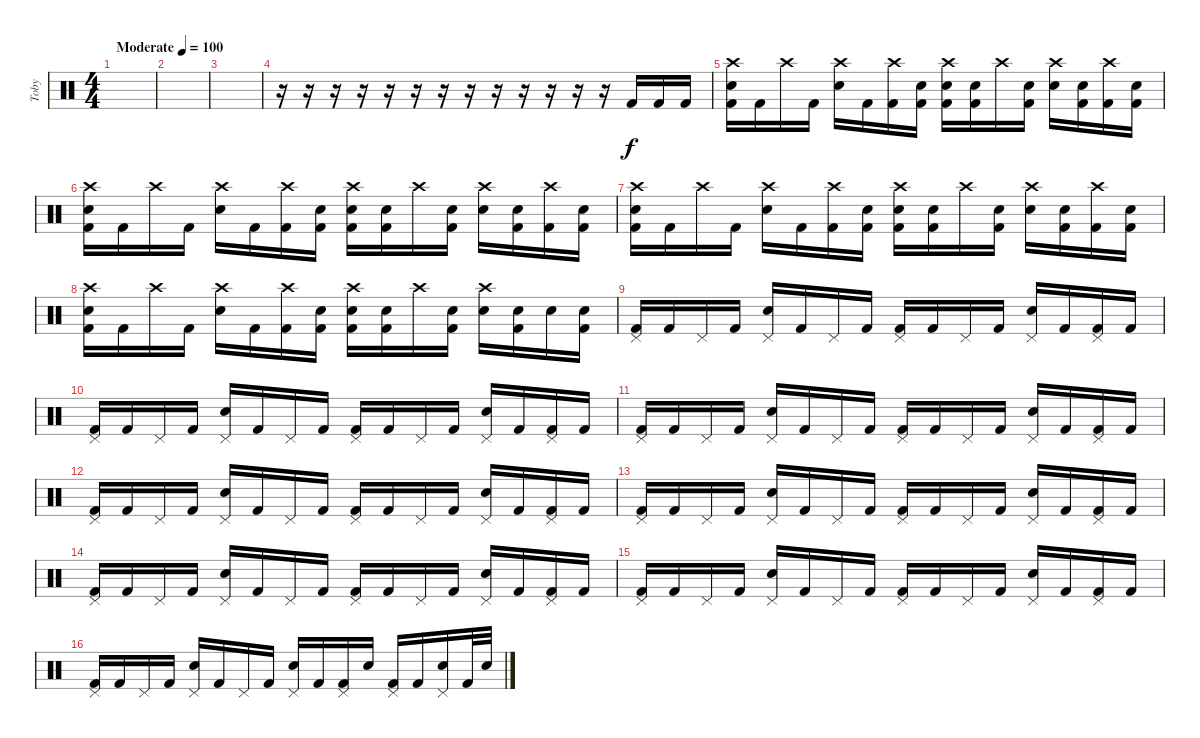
\track ("Toby" "Toby") {instrument percussion}
\staff {score}
\articulation defaults
\ts (4 4)
\tempo (100 "Moderate")
\clef neutral
\ks c
|
|
|
r.16 r.16 r.16 r.16 r.16 r.16 r.16 r.16 r.16 r.16 r.16 r.16 r.16 "Kick (hit) 2".16 "Kick (hit) 2".16 "Kick (hit) 2".16 |
("Crash high (hit)" "Electric Snare (hit)" "Kick (hit) 2").16 "Kick (hit) 2".16 "Crash high (hit)".16 "Kick (hit) 2".16 ("Crash high (hit)" "Electric Snare (hit)").16 "Kick (hit) 2".16 ("Crash high (hit)" "Kick (hit) 2").16 ("Snare (hit)" "Kick (hit) 2").16 ("Crash high (hit)" "Electric Snare (hit)" "Kick (hit) 2").16 ("Snare (hit)" "Kick (hit) 2").16 "Crash high (hit)".16 ("Snare (hit)" "Kick (hit) 2").16 ("Crash high (hit)" "Electric Snare (hit)").16 ("Snare (hit)" "Kick (hit) 2").16 ("Crash high (hit)" "Kick (hit) 2").16 ("Snare (hit)" "Kick (hit) 2").16 |
("Crash high (hit)" "Electric Snare (hit)" "Kick (hit) 2").16 "Kick (hit) 2".16 "Crash high (hit)".16 "Kick (hit) 2".16 ("Crash high (hit)" "Electric Snare (hit)").16 "Kick (hit) 2".16 ("Crash high (hit)" "Kick (hit) 2").16 ("Snare (hit)" "Kick (hit) 2").16 ("Crash high (hit)" "Electric Snare (hit)" "Kick (hit) 2").16 ("Snare (hit)" "Kick (hit) 2").16 "Crash high (hit)".16 ("Snare (hit)" "Kick (hit) 2").16 ("Crash high (hit)" "Electric Snare (hit)").16 ("Snare (hit)" "Kick (hit) 2").16 ("Crash high (hit)" "Kick (hit) 2").16 ("Snare (hit)" "Kick (hit) 2").16 |
("Crash high (hit)" "Electric Snare (hit)" "Kick (hit) 2").16 "Kick (hit) 2".16 "Crash high (hit)".16 "Kick (hit) 2".16 ("Crash high (hit)" "Electric Snare (hit)").16 "Kick (hit) 2".16 ("Crash high (hit)" "Kick (hit) 2").16 ("Snare (hit)" "Kick (hit) 2").16 ("Crash high (hit)" "Electric Snare (hit)" "Kick (hit) 2").16 ("Snare (hit)" "Kick (hit) 2").16 "Crash high (hit)".16 ("Snare (hit)" "Kick (hit) 2").16 ("Crash high (hit)" "Electric Snare (hit)").16 ("Snare (hit)" "Kick (hit) 2").16 ("Crash high (hit)" "Kick (hit) 2").16 ("Snare (hit)" "Kick (hit) 2").16 |
("Crash high (hit)" "Electric Snare (hit)" "Kick (hit) 2").16 "Kick (hit) 2".16 "Crash high (hit)".16 "Kick (hit) 2".16 ("Crash high (hit)" "Electric Snare (hit)").16 "Kick (hit) 2".16 ("Crash high (hit)" "Kick (hit) 2").16 ("Snare (hit)" "Kick (hit) 2").16 ("Crash high (hit)" "Electric Snare (hit)" "Kick (hit) 2").16 ("Snare (hit)" "Kick (hit) 2").16 "Crash high (hit)".16 ("Snare (hit)" "Kick (hit) 2").16 ("Crash high (hit)" "Electric Snare (hit)").16 ("Snare (hit)" "Kick (hit) 2").16 "Electric Snare (hit)".16 ("Snare (hit)" "Kick (hit) 2").16 |
("Pedal Hi-Hat (hit)" "Kick (hit) 2").16 "Kick (hit) 2".16 "Pedal Hi-Hat (hit)".16 "Kick (hit) 2".16 ("Pedal Hi-Hat (hit)" "Electric Snare (hit)").16 "Kick (hit) 2".16 "Pedal Hi-Hat (hit)".16 "Kick (hit) 2".16 ("Pedal Hi-Hat (hit)" "Kick (hit) 2").16 "Kick (hit) 2".16 "Pedal Hi-Hat (hit)".16 "Kick (hit) 2".16 ("Pedal Hi-Hat (hit)" "Electric Snare (hit)").16 "Kick (hit) 2".16 ("Pedal Hi-Hat (hit)" "Kick (hit) 2").16 "Kick (hit) 2".16 |
("Pedal Hi-Hat (hit)" "Kick (hit) 2").16 "Kick (hit) 2".16 "Pedal Hi-Hat (hit)".16 "Kick (hit) 2".16 ("Pedal Hi-Hat (hit)" "Electric Snare (hit)").16 "Kick (hit) 2".16 "Pedal Hi-Hat (hit)".16 "Kick (hit) 2".16 ("Pedal Hi-Hat (hit)" "Kick (hit) 2").16 "Kick (hit) 2".16 "Pedal Hi-Hat (hit)".16 "Kick (hit) 2".16 ("Pedal Hi-Hat (hit)" "Electric Snare (hit)").16 "Kick (hit) 2".16 ("Pedal Hi-Hat (hit)" "Kick (hit) 2").16 "Kick (hit) 2".16 |
("Pedal Hi-Hat (hit)" "Kick (hit) 2").16 "Kick (hit) 2".16 "Pedal Hi-Hat (hit)".16 "Kick (hit) 2".16 ("Pedal Hi-Hat (hit)" "Electric Snare (hit)").16 "Kick (hit) 2".16 "Pedal Hi-Hat (hit)".16 "Kick (hit) 2".16 ("Pedal Hi-Hat (hit)" "Kick (hit) 2").16 "Kick (hit) 2".16 "Pedal Hi-Hat (hit)".16 "Kick (hit) 2".16 ("Pedal Hi-Hat (hit)" "Electric Snare (hit)").16 "Kick (hit) 2".16 ("Pedal Hi-Hat (hit)" "Kick (hit) 2").16 "Kick (hit) 2".16 |
("Pedal Hi-Hat (hit)" "Kick (hit) 2").16 "Kick (hit) 2".16 "Pedal Hi-Hat (hit)".16 "Kick (hit) 2".16 ("Pedal Hi-Hat (hit)" "Electric Snare (hit)").16 "Kick (hit) 2".16 "Pedal Hi-Hat (hit)".16 "Kick (hit) 2".16 ("Pedal Hi-Hat (hit)" "Kick (hit) 2").16 "Kick (hit) 2".16 "Pedal Hi-Hat (hit)".16 "Kick (hit) 2".16 ("Pedal Hi-Hat (hit)" "Electric Snare (hit)").16 "Kick (hit) 2".16 ("Pedal Hi-Hat (hit)" "Kick (hit) 2").16 "Kick (hit) 2".16 |
("Pedal Hi-Hat (hit)" "Kick (hit) 2").16 "Kick (hit) 2".16 "Pedal Hi-Hat (hit)".16 "Kick (hit) 2".16 ("Pedal Hi-Hat (hit)" "Electric Snare (hit)").16 "Kick (hit) 2".16 "Pedal Hi-Hat (hit)".16 "Kick (hit) 2".16 ("Pedal Hi-Hat (hit)" "Kick (hit) 2").16 "Kick (hit) 2".16 "Pedal Hi-Hat (hit)".16 "Kick (hit) 2".16 ("Pedal Hi-Hat (hit)" "Electric Snare (hit)").16 "Kick (hit) 2".16 ("Pedal Hi-Hat (hit)" "Kick (hit) 2").16 "Kick (hit) 2".16 |
("Pedal Hi-Hat (hit)" "Kick (hit) 2").16 "Kick (hit) 2".16 "Pedal Hi-Hat (hit)".16 "Kick (hit) 2".16 ("Pedal Hi-Hat (hit)" "Electric Snare (hit)").16 "Kick (hit) 2".16 "Pedal Hi-Hat (hit)".16 "Kick (hit) 2".16 ("Pedal Hi-Hat (hit)" "Kick (hit) 2").16 "Kick (hit) 2".16 "Pedal Hi-Hat (hit)".16 "Kick (hit) 2".16 ("Pedal Hi-Hat (hit)" "Electric Snare (hit)").16 "Kick (hit) 2".16 ("Pedal Hi-Hat (hit)" "Kick (hit) 2").16 "Kick (hit) 2".16 |
("Pedal Hi-Hat (hit)" "Kick (hit) 2").16 "Kick (hit) 2".16 "Pedal Hi-Hat (hit)".16 "Kick (hit) 2".16 ("Pedal Hi-Hat (hit)" "Electric Snare (hit)").16 "Kick (hit) 2".16 "Pedal Hi-Hat (hit)".16 "Kick (hit) 2".16 ("Pedal Hi-Hat (hit)" "Kick (hit) 2").16 "Kick (hit) 2".16 "Pedal Hi-Hat (hit)".16 "Kick (hit) 2".16 ("Pedal Hi-Hat (hit)" "Electric Snare (hit)").16 "Kick (hit) 2".16 ("Pedal Hi-Hat (hit)" "Kick (hit) 2").16 "Kick (hit) 2".16 |
("Pedal Hi-Hat (hit)" "Kick (hit) 2").16 "Kick (hit) 2".16 "Pedal Hi-Hat (hit)".16 "Kick (hit) 2".16 ("Pedal Hi-Hat (hit)" "Electric Snare (hit)").16 "Kick (hit) 2".16 "Pedal Hi-Hat (hit)".16 "Kick (hit) 2".16 ("Pedal Hi-Hat (hit)" "Electric Snare (hit)").16 "Kick (hit) 2".16 ("Pedal Hi-Hat (hit)" "Kick (hit) 2").16 "Electric Snare (hit)".16 ("Pedal Hi-Hat (hit)" "Kick (hit) 2").16 "Kick (hit) 2".16 ("Pedal Hi-Hat (hit)" "Electric Snare (hit)").16 "Kick (hit) 2".32 "Electric Snare (hit)".32
